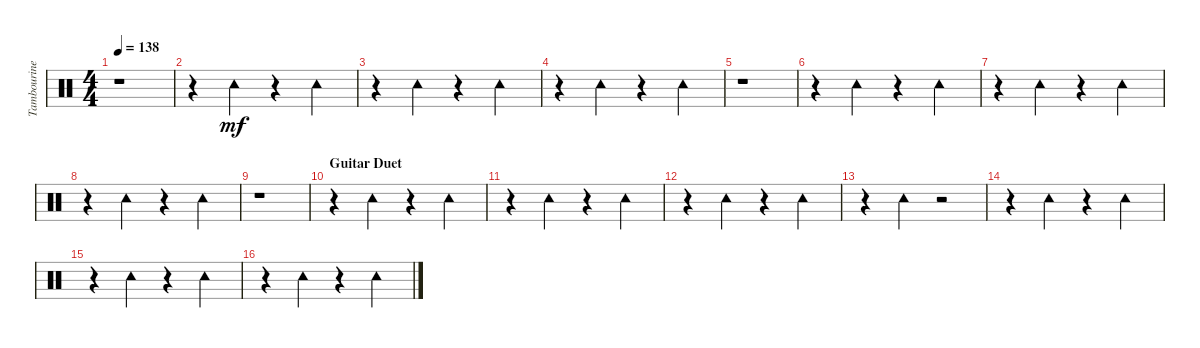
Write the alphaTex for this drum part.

\track ("Tambourine" "Tambourine") {instrument percussion}
\staff {score}
\articulation defaults
\ts (4 4)
\tempo 138
\clef neutral
\ks c
r.1{dy mf} |
r.4 "Tambourine (hit)".4 r.4 "Tambourine (hit)".4 |
r.4 "Tambourine (hit)".4 r.4 "Tambourine (hit)".4 |
r.4 "Tambourine (hit)".4 r.4 "Tambourine (hit)".4 |
r.1 |
r.4 "Tambourine (hit)".4 r.4 "Tambourine (hit)".4 |
r.4 "Tambourine (hit)".4 r.4 "Tambourine (hit)".4 |
r.4 "Tambourine (hit)".4 r.4 "Tambourine (hit)".4 |
r.1 |
\section ("" "Guitar Duet")
r.4 "Tambourine (hit)".4 r.4 "Tambourine (hit)".4 |
r.4 "Tambourine (hit)".4 r.4 "Tambourine (hit)".4 |
r.4 "Tambourine (hit)".4 r.4 "Tambourine (hit)".4 |
r.4 "Tambourine (hit)".4 r.2 |
r.4 "Tambourine (hit)".4 r.4 "Tambourine (hit)".4 |
r.4 "Tambourine (hit)".4 r.4 "Tambourine (hit)".4 |
r.4 "Tambourine (hit)".4 r.4 "Tambourine (hit)".4
